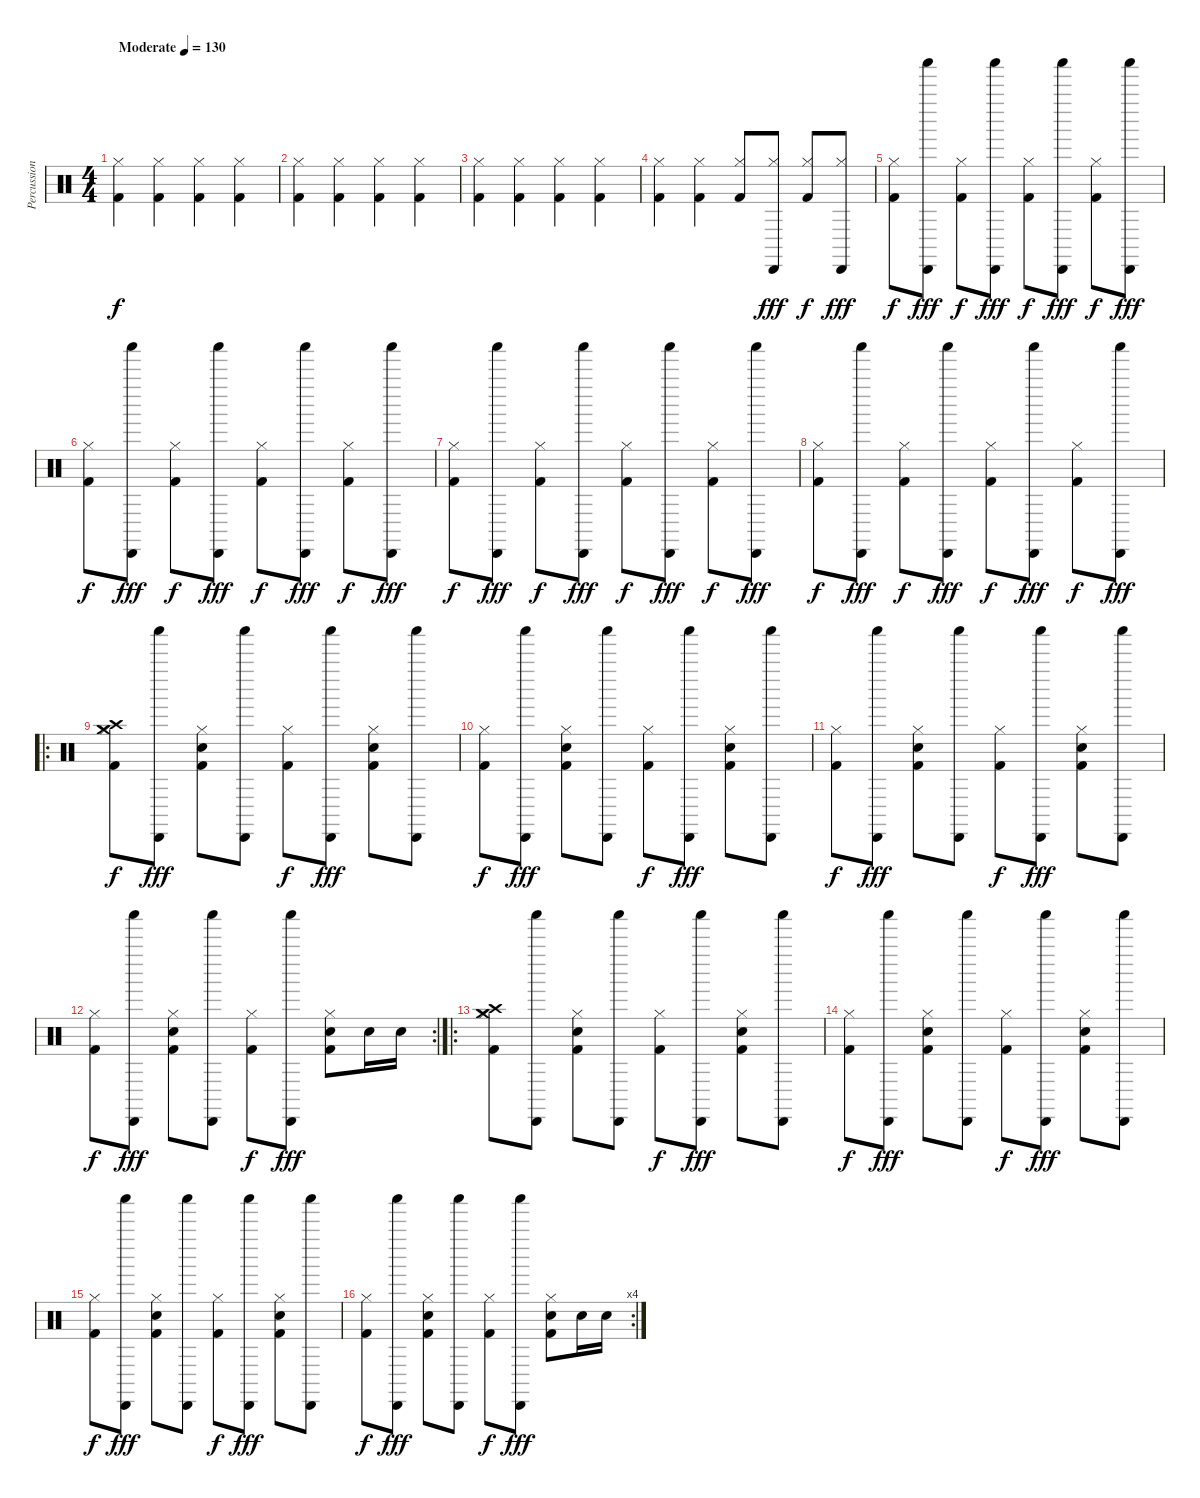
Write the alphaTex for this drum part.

\track ("Percussion" "Percussion") {instrument percussion}
\staff {score}
\articulation defaults
\ts (4 4)
\tempo (130 "Moderate")
\clef neutral
\ks c
("Hi-Hat (closed)" "Kick (hit) 2").4{dy f} ("Hi-Hat (closed)" "Kick (hit) 2").4 ("Hi-Hat (closed)" "Kick (hit) 2").4 ("Hi-Hat (closed)" "Kick (hit) 2").4 |
("Hi-Hat (closed)" "Kick (hit) 2").4 ("Hi-Hat (closed)" "Kick (hit) 2").4 ("Hi-Hat (closed)" "Kick (hit) 2").4 ("Hi-Hat (closed)" "Kick (hit) 2").4 |
("Hi-Hat (closed)" "Kick (hit) 2").4 ("Hi-Hat (closed)" "Kick (hit) 2").4 ("Hi-Hat (closed)" "Kick (hit) 2").4 ("Hi-Hat (closed)" "Kick (hit) 2").4 |
("Hi-Hat (closed)" "Kick (hit) 2").4 ("Hi-Hat (closed)" "Kick (hit) 2").4 ("Hi-Hat (closed)" "Kick (hit) 2").8 ("Cabasa (hit)" "Hi-Hat (closed)").8{dy fff} ("Hi-Hat (closed)" "Kick (hit) 2").8{dy f} ("Cabasa (hit)" "Hi-Hat (closed)").8{dy fff} |
("Hi-Hat (closed)" "Kick (hit) 2").8{dy f} ("Shaker (hit)" "Cabasa (hit)").8{dy fff} ("Hi-Hat (closed)" "Kick (hit) 2").8{dy f} ("Shaker (hit)" "Cabasa (hit)").8{dy fff} ("Hi-Hat (closed)" "Kick (hit) 2").8{dy f} ("Shaker (hit)" "Cabasa (hit)").8{dy fff} ("Hi-Hat (closed)" "Kick (hit) 2").8{dy f} ("Shaker (hit)" "Cabasa (hit)").8{dy fff} |
("Hi-Hat (closed)" "Kick (hit) 2").8{dy f} ("Shaker (hit)" "Cabasa (hit)").8{dy fff} ("Hi-Hat (closed)" "Kick (hit) 2").8{dy f} ("Shaker (hit)" "Cabasa (hit)").8{dy fff} ("Hi-Hat (closed)" "Kick (hit) 2").8{dy f} ("Shaker (hit)" "Cabasa (hit)").8{dy fff} ("Hi-Hat (closed)" "Kick (hit) 2").8{dy f} ("Shaker (hit)" "Cabasa (hit)").8{dy fff} |
("Hi-Hat (closed)" "Kick (hit) 2").8{dy f} ("Shaker (hit)" "Cabasa (hit)").8{dy fff} ("Hi-Hat (closed)" "Kick (hit) 2").8{dy f} ("Shaker (hit)" "Cabasa (hit)").8{dy fff} ("Hi-Hat (closed)" "Kick (hit) 2").8{dy f} ("Shaker (hit)" "Cabasa (hit)").8{dy fff} ("Hi-Hat (closed)" "Kick (hit) 2").8{dy f} ("Shaker (hit)" "Cabasa (hit)").8{dy fff} |
("Hi-Hat (closed)" "Kick (hit) 2").8{dy f} ("Shaker (hit)" "Cabasa (hit)").8{dy fff} ("Hi-Hat (closed)" "Kick (hit) 2").8{dy f} ("Shaker (hit)" "Cabasa (hit)").8{dy fff} ("Hi-Hat (closed)" "Kick (hit) 2").8{dy f} ("Shaker (hit)" "Cabasa (hit)").8{dy fff} ("Hi-Hat (closed)" "Kick (hit) 2").8{dy f} ("Shaker (hit)" "Cabasa (hit)").8{dy fff} |
\ro
("Crash medium (hit)" "Crash high (hit)" "Hi-Hat (closed)" "Kick (hit) 2").8{dy f} ("Shaker (hit)" "Cabasa (hit)").8{dy fff} ("Electric Snare (hit)" "Hi-Hat (closed)" "Kick (hit) 2").8 ("Shaker (hit)" "Cabasa (hit)").8 ("Hi-Hat (closed)" "Kick (hit) 2").8{dy f} ("Shaker (hit)" "Cabasa (hit)").8{dy fff} ("Electric Snare (hit)" "Hi-Hat (closed)" "Kick (hit) 2").8 ("Shaker (hit)" "Cabasa (hit)").8 |
("Hi-Hat (closed)" "Kick (hit) 2").8{dy f} ("Shaker (hit)" "Cabasa (hit)").8{dy fff} ("Electric Snare (hit)" "Hi-Hat (closed)" "Kick (hit) 2").8 ("Shaker (hit)" "Cabasa (hit)").8 ("Hi-Hat (closed)" "Kick (hit) 2").8{dy f} ("Shaker (hit)" "Cabasa (hit)").8{dy fff} ("Electric Snare (hit)" "Hi-Hat (closed)" "Kick (hit) 2").8 ("Shaker (hit)" "Cabasa (hit)").8 |
("Hi-Hat (closed)" "Kick (hit) 2").8{dy f} ("Shaker (hit)" "Cabasa (hit)").8{dy fff} ("Electric Snare (hit)" "Hi-Hat (closed)" "Kick (hit) 2").8 ("Shaker (hit)" "Cabasa (hit)").8 ("Hi-Hat (closed)" "Kick (hit) 2").8{dy f} ("Shaker (hit)" "Cabasa (hit)").8{dy fff} ("Electric Snare (hit)" "Hi-Hat (closed)" "Kick (hit) 2").8 ("Shaker (hit)" "Cabasa (hit)").8 |
\rc 2
("Hi-Hat (closed)" "Kick (hit) 2").8{dy f} ("Shaker (hit)" "Cabasa (hit)").8{dy fff} ("Electric Snare (hit)" "Hi-Hat (closed)" "Kick (hit) 2").8 ("Shaker (hit)" "Cabasa (hit)").8 ("Hi-Hat (closed)" "Kick (hit) 2").8{dy f} ("Shaker (hit)" "Cabasa (hit)").8{dy fff} ("Electric Snare (hit)" "Hi-Hat (closed)" "Kick (hit) 2").8 "Electric Snare (hit)".16 "Electric Snare (hit)".16 |
\ro
("Crash medium (hit)" "Crash high (hit)" "Hi-Hat (closed)" "Kick (hit) 2").8 ("Shaker (hit)" "Cabasa (hit)").8 ("Electric Snare (hit)" "Hi-Hat (closed)" "Kick (hit) 2").8 ("Shaker (hit)" "Cabasa (hit)").8 ("Hi-Hat (closed)" "Kick (hit) 2").8{dy f} ("Shaker (hit)" "Cabasa (hit)").8{dy fff} ("Electric Snare (hit)" "Hi-Hat (closed)" "Kick (hit) 2").8 ("Shaker (hit)" "Cabasa (hit)").8 |
("Hi-Hat (closed)" "Kick (hit) 2").8{dy f} ("Shaker (hit)" "Cabasa (hit)").8{dy fff} ("Electric Snare (hit)" "Hi-Hat (closed)" "Kick (hit) 2").8 ("Shaker (hit)" "Cabasa (hit)").8 ("Hi-Hat (closed)" "Kick (hit) 2").8{dy f} ("Shaker (hit)" "Cabasa (hit)").8{dy fff} ("Electric Snare (hit)" "Hi-Hat (closed)" "Kick (hit) 2").8 ("Shaker (hit)" "Cabasa (hit)").8 |
("Hi-Hat (closed)" "Kick (hit) 2").8{dy f} ("Shaker (hit)" "Cabasa (hit)").8{dy fff} ("Electric Snare (hit)" "Hi-Hat (closed)" "Kick (hit) 2").8 ("Shaker (hit)" "Cabasa (hit)").8 ("Hi-Hat (closed)" "Kick (hit) 2").8{dy f} ("Shaker (hit)" "Cabasa (hit)").8{dy fff} ("Electric Snare (hit)" "Hi-Hat (closed)" "Kick (hit) 2").8 ("Shaker (hit)" "Cabasa (hit)").8 |
\rc 4
("Hi-Hat (closed)" "Kick (hit) 2").8{dy f} ("Shaker (hit)" "Cabasa (hit)").8{dy fff} ("Electric Snare (hit)" "Hi-Hat (closed)" "Kick (hit) 2").8 ("Shaker (hit)" "Cabasa (hit)").8 ("Hi-Hat (closed)" "Kick (hit) 2").8{dy f} ("Shaker (hit)" "Cabasa (hit)").8{dy fff} ("Electric Snare (hit)" "Hi-Hat (closed)" "Kick (hit) 2").8 "Electric Snare (hit)".16 "Electric Snare (hit)".16
